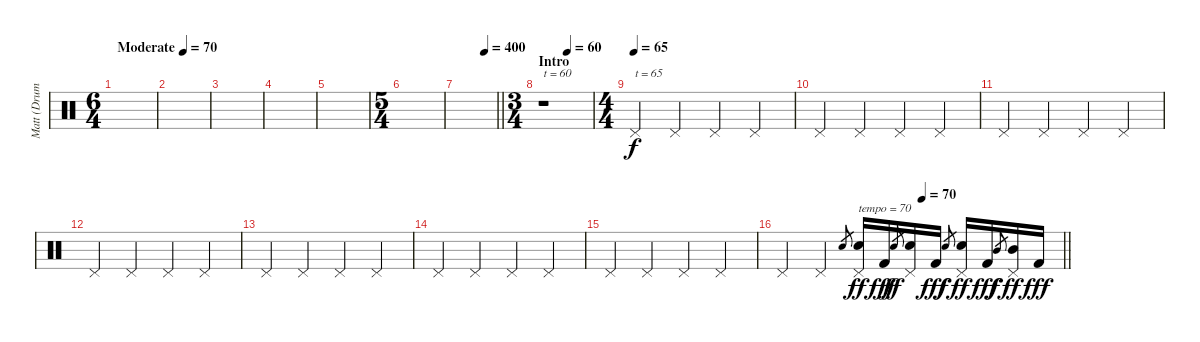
\track ("Matt (Drums)" "Matt (Drum") {instrument percussion}
\staff {score}
\articulation defaults
\ts (6 4)
\tempo (70 "Moderate")
\tempo 92
\tempo (70 "Moderate")
\clef neutral
\ks c
|
|
|
|
|
\ts (5 4)
|
\tempo (400 0.7)
\barLineRight lightlight
|
\ts (3 4)
\section ("" "Intro")
\tempo (60 0.5)
r.1{txt "t = 60"} |
\ts (4 4)
\tempo (65)
"Pedal Hi-Hat (hit)".4{txt "t = 65"} "Pedal Hi-Hat (hit)".4 "Pedal Hi-Hat (hit)".4 "Pedal Hi-Hat (hit)".4 |
"Pedal Hi-Hat (hit)".4 "Pedal Hi-Hat (hit)".4 "Pedal Hi-Hat (hit)".4 "Pedal Hi-Hat (hit)".4 |
"Pedal Hi-Hat (hit)".4 "Pedal Hi-Hat (hit)".4 "Pedal Hi-Hat (hit)".4 "Pedal Hi-Hat (hit)".4 |
"Pedal Hi-Hat (hit)".4 "Pedal Hi-Hat (hit)".4 "Pedal Hi-Hat (hit)".4 "Pedal Hi-Hat (hit)".4 |
"Pedal Hi-Hat (hit)".4 "Pedal Hi-Hat (hit)".4 "Pedal Hi-Hat (hit)".4 "Pedal Hi-Hat (hit)".4 |
"Pedal Hi-Hat (hit)".4 "Pedal Hi-Hat (hit)".4 "Pedal Hi-Hat (hit)".4 "Pedal Hi-Hat (hit)".4 |
"Pedal Hi-Hat (hit)".4 "Pedal Hi-Hat (hit)".4 "Pedal Hi-Hat (hit)".4 "Pedal Hi-Hat (hit)".4 |
\tempo (70 0.5)
\barLineRight lightlight "Pedal Hi-Hat (hit)".4{dy f} "Pedal Hi-Hat (hit)".4 "Snare (hit) 2".8{gr}
("Pedal Hi-Hat (hit)" "Snare (hit) 2").16{txt "tempo = 70" dy ff} "Kick (hit) 2".16{dy fff} "Snare (hit) 2".8{gr dy ff} ("Pedal Hi-Hat (hit)" "Snare (hit) 2").16 "Kick (hit) 2".16{dy fff} "Snare (hit) 2".8{gr dy f} ("Pedal Hi-Hat (hit)" "Snare (hit) 2").16{dy ff} "Kick (hit) 2".16{dy fff} "Mid Tom (hit)".8{gr dy f} ("Pedal Hi-Hat (hit)" "Mid Tom (hit)").16{dy ff} "Kick (hit) 2".16{dy fff}
